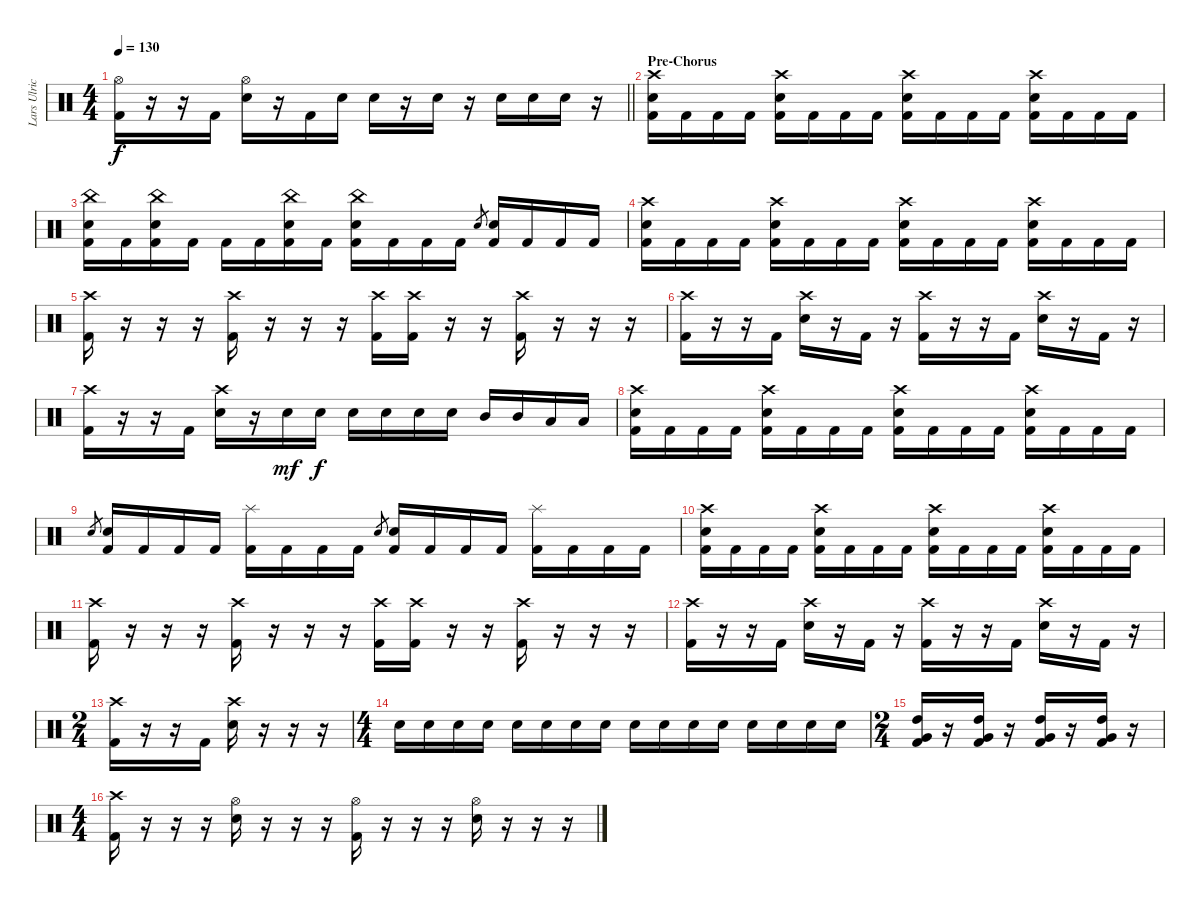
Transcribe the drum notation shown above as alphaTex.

\track ("Lars Ulrich" "Lars Ulric") {instrument percussion}
\staff {score}
\articulation defaults
\ts (4 4)
\tempo 130
\clef neutral
\barLineRight lightlight
\ks c
("Hi-Hat (open)" "Kick (hit) 2").16{dy f} r.16 r.16 "Kick (hit) 2".16 ("Electric Snare (hit)" "Hi-Hat (open)").16 r.16 "Kick (hit) 2".16 "Electric Snare (hit)".16 "Electric Snare (hit)".16 r.16 "Electric Snare (hit)".16 r.16 "Electric Snare (hit)".16 "Electric Snare (hit)".16 "Electric Snare (hit)".16 r.16 |
\section ("" "Pre-Chorus")
("Crash high (hit)" "Electric Snare (hit)" "Kick (hit) 2").16 "Kick (hit) 2".16 "Kick (hit) 2".16 "Kick (hit) 2".16 ("Crash high (hit)" "Electric Snare (hit)" "Kick (hit) 2").16 "Kick (hit) 2".16 "Kick (hit) 2".16 "Kick (hit) 2".16 ("Crash high (hit)" "Electric Snare (hit)" "Kick (hit) 2").16 "Kick (hit) 2".16 "Kick (hit) 2".16 "Kick (hit) 2".16 ("Crash high (hit)" "Electric Snare (hit)" "Kick (hit) 2").16 "Kick (hit) 2".16 "Kick (hit) 2".16 "Kick (hit) 2".16 |
("Electric Snare (hit)" "China (hit)" "Kick (hit) 2").16 "Kick (hit) 2".16 ("Electric Snare (hit)" "China (hit)" "Kick (hit) 2").16 "Kick (hit) 2".16 "Kick (hit) 2".16 "Kick (hit) 2".16 ("Electric Snare (hit)" "China (hit)" "Kick (hit) 2").16 "Kick (hit) 2".16 ("Electric Snare (hit)" "China (hit)" "Kick (hit) 2").16 "Kick (hit) 2".16 "Kick (hit) 2".16 "Kick (hit) 2".16 "Electric Snare (hit)".8{gr} ("Electric Snare (hit)" "Kick (hit) 2").16 "Kick (hit) 2".16 "Kick (hit) 2".16 "Kick (hit) 2".16 |
("Crash high (hit)" "Electric Snare (hit)" "Kick (hit) 2").16 "Kick (hit) 2".16 "Kick (hit) 2".16 "Kick (hit) 2".16 ("Crash high (hit)" "Electric Snare (hit)" "Kick (hit) 2").16 "Kick (hit) 2".16 "Kick (hit) 2".16 "Kick (hit) 2".16 ("Crash high (hit)" "Electric Snare (hit)" "Kick (hit) 2").16 "Kick (hit) 2".16 "Kick (hit) 2".16 "Kick (hit) 2".16 ("Crash high (hit)" "Electric Snare (hit)" "Kick (hit) 2").16 "Kick (hit) 2".16 "Kick (hit) 2".16 "Kick (hit) 2".16 |
("Crash high (hit)" "Kick (hit) 2").16 r.16 r.16{volume 0} r.16 ("Crash high (hit)" "Kick (hit) 2").16{volume 13} r.16 r.16{volume 0} r.16 ("Crash high (hit)" "Kick (hit) 2").16{volume 13} ("Crash high (hit)" "Kick (hit) 2").16 r.16 r.16{volume 0} ("Crash high (hit)" "Kick (hit) 2").16{volume 13} r.16 r.16{volume 0} r.16 |
("Crash high (hit)" "Kick (hit) 2").16{volume 13} r.16 r.16 "Kick (hit) 2".16 ("Crash high (hit)" "Electric Snare (hit)").16 r.16 "Kick (hit) 2".16 r.16 ("Crash high (hit)" "Kick (hit) 2").16 r.16 r.16 "Kick (hit) 2".16 ("Crash high (hit)" "Electric Snare (hit)").16 r.16 "Kick (hit) 2".16 r.16 |
("Crash high (hit)" "Kick (hit) 2").16 r.16 r.16 "Kick (hit) 2".16 ("Crash high (hit)" "Electric Snare (hit)").16 r.16 "Electric Snare (hit)".16{dy mf} "Electric Snare (hit)".16{dy f} "Electric Snare (hit)".16 "Electric Snare (hit)".16 "Electric Snare (hit)".16 "Electric Snare (hit)".16 "Mid Tom (hit)".16 "Mid Tom (hit)".16 "Low Tom (hit)".16 "Low Tom (hit)".16 |
("Crash high (hit)" "Electric Snare (hit)" "Kick (hit) 2").16 "Kick (hit) 2".16 "Kick (hit) 2".16 "Kick (hit) 2".16 ("Crash high (hit)" "Electric Snare (hit)" "Kick (hit) 2").16 "Kick (hit) 2".16 "Kick (hit) 2".16 "Kick (hit) 2".16 ("Crash high (hit)" "Electric Snare (hit)" "Kick (hit) 2").16 "Kick (hit) 2".16 "Kick (hit) 2".16 "Kick (hit) 2".16 ("Crash high (hit)" "Electric Snare (hit)" "Kick (hit) 2").16 "Kick (hit) 2".16 "Kick (hit) 2".16 "Kick (hit) 2".16 |
"Electric Snare (hit)".8{gr} ("Electric Snare (hit)" "Kick (hit) 2").16 "Kick (hit) 2".16 "Kick (hit) 2".16 "Kick (hit) 2".16 ("Splash (hit)" "Kick (hit) 2").16 "Kick (hit) 2".16 "Kick (hit) 2".16 "Kick (hit) 2".16 "Electric Snare (hit)".8{gr} ("Electric Snare (hit)" "Kick (hit) 2").16 "Kick (hit) 2".16 "Kick (hit) 2".16 "Kick (hit) 2".16 ("Splash (hit)" "Kick (hit) 2").16 "Kick (hit) 2".16 "Kick (hit) 2".16 "Kick (hit) 2".16 |
("Crash high (hit)" "Electric Snare (hit)" "Kick (hit) 2").16 "Kick (hit) 2".16 "Kick (hit) 2".16 "Kick (hit) 2".16 ("Crash high (hit)" "Electric Snare (hit)" "Kick (hit) 2").16 "Kick (hit) 2".16 "Kick (hit) 2".16 "Kick (hit) 2".16 ("Crash high (hit)" "Electric Snare (hit)" "Kick (hit) 2").16 "Kick (hit) 2".16 "Kick (hit) 2".16 "Kick (hit) 2".16 ("Crash high (hit)" "Electric Snare (hit)" "Kick (hit) 2").16 "Kick (hit) 2".16 "Kick (hit) 2".16 "Kick (hit) 2".16 |
("Crash high (hit)" "Kick (hit) 2").16 r.16 r.16{volume 0} r.16 ("Crash high (hit)" "Kick (hit) 2").16{volume 13} r.16 r.16{volume 0} r.16 ("Crash high (hit)" "Kick (hit) 2").16{volume 13} ("Crash high (hit)" "Kick (hit) 2").16 r.16 r.16{volume 0} ("Crash high (hit)" "Kick (hit) 2").16{volume 13} r.16 r.16{volume 0} r.16 |
("Crash high (hit)" "Kick (hit) 2").16{volume 13} r.16 r.16 "Kick (hit) 2".16 ("Crash high (hit)" "Electric Snare (hit)").16 r.16 "Kick (hit) 2".16 r.16 ("Crash high (hit)" "Kick (hit) 2").16 r.16 r.16 "Kick (hit) 2".16 ("Crash high (hit)" "Electric Snare (hit)").16 r.16 "Kick (hit) 2".16 r.16 |
\ts (2 4)
("Crash high (hit)" "Kick (hit) 2").16 r.16 r.16 "Kick (hit) 2".16 ("Crash high (hit)" "Electric Snare (hit)").16 r.16 r.16 r.16 |
\ts (4 4)
"Electric Snare (hit)".16 "Electric Snare (hit)".16 "Electric Snare (hit)".16 "Electric Snare (hit)".16 "Electric Snare (hit)".16 "Electric Snare (hit)".16 "Electric Snare (hit)".16 "Electric Snare (hit)".16 "Electric Snare (hit)".16 "Electric Snare (hit)".16 "Electric Snare (hit)".16 "Electric Snare (hit)".16 "Electric Snare (hit)".16 "Electric Snare (hit)".16 "Electric Snare (hit)".16 "Electric Snare (hit)".16 |
\ts (2 4)
("High Tom (hit)" "Very Low Tom (hit)" "Kick (hit) 2").16 r.16 ("High Tom (hit)" "Very Low Tom (hit)" "Kick (hit) 2").16 r.16 ("High Tom (hit)" "Very Low Tom (hit)" "Kick (hit) 2").16 r.16 ("High Tom (hit)" "Very Low Tom (hit)" "Kick (hit) 2").16 r.16 |
\ts (4 4)
("Crash high (hit)" "Kick (hit) 2").16 r.16 r.16 r.16 ("Electric Snare (hit)" "Hi-Hat (open)").16 r.16 r.16 r.16 ("Hi-Hat (open)" "Kick (hit) 2").16 r.16 r.16 r.16 ("Electric Snare (hit)" "Hi-Hat (open)").16 r.16 r.16 r.16
